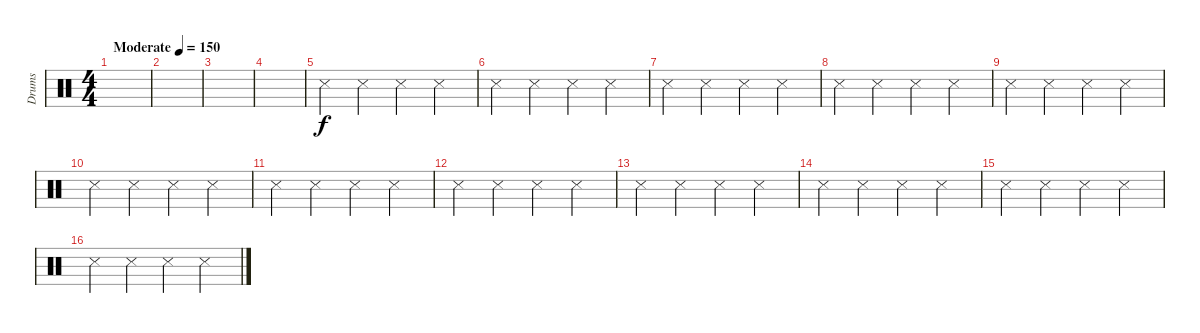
\track ("Drums" "Drums") {instrument percussion}
\staff {score}
\articulation defaults
\ts (4 4)
\tempo (150 "Moderate")
\clef neutral
\ks c
|
|
|
|
"Snare (side stick) 3".4 "Snare (side stick) 3".4 "Snare (side stick) 3".4 "Snare (side stick) 3".4 |
"Snare (side stick) 3".4 "Snare (side stick) 3".4 "Snare (side stick) 3".4 "Snare (side stick) 3".4 |
"Snare (side stick) 3".4 "Snare (side stick) 3".4 "Snare (side stick) 3".4 "Snare (side stick) 3".4 |
"Snare (side stick) 3".4 "Snare (side stick) 3".4 "Snare (side stick) 3".4 "Snare (side stick) 3".4 |
"Snare (side stick) 3".4 "Snare (side stick) 3".4 "Snare (side stick) 3".4 "Snare (side stick) 3".4 |
"Snare (side stick) 3".4 "Snare (side stick) 3".4 "Snare (side stick) 3".4 "Snare (side stick) 3".4 |
"Snare (side stick) 3".4 "Snare (side stick) 3".4 "Snare (side stick) 3".4 "Snare (side stick) 3".4 |
"Snare (side stick) 3".4 "Snare (side stick) 3".4 "Snare (side stick) 3".4 "Snare (side stick) 3".4 |
"Snare (side stick) 3".4 "Snare (side stick) 3".4 "Snare (side stick) 3".4 "Snare (side stick) 3".4 |
"Snare (side stick) 3".4 "Snare (side stick) 3".4 "Snare (side stick) 3".4 "Snare (side stick) 3".4 |
"Snare (side stick) 3".4 "Snare (side stick) 3".4 "Snare (side stick) 3".4 "Snare (side stick) 3".4 |
"Snare (side stick) 3".4 "Snare (side stick) 3".4 "Snare (side stick) 3".4 "Snare (side stick) 3".4
